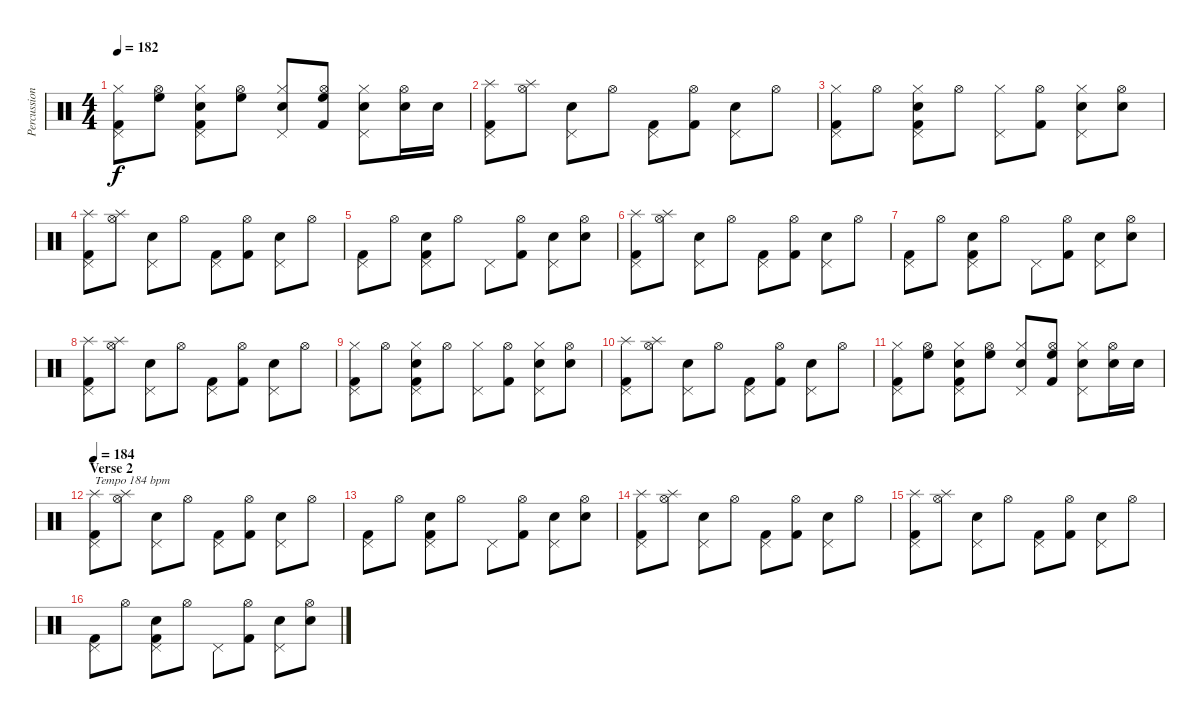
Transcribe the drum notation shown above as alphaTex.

\track ("Percussion" "Percussion") {instrument percussion}
\staff {score}
\articulation defaults
\ts (4 4)
\tempo 182
\clef neutral
\ks c
("Pedal Hi-Hat (hit)" "Hi-Hat (closed)" "Kick (hit) 2").8{dy f} ("Hi-Hat (open)" "High Floor Tom (hit)").8 ("Pedal Hi-Hat (hit)" "Hi-Hat (closed)" "Snare (hit) 2" "Kick (hit) 2").8 ("Hi-Hat (open)" "High Floor Tom (hit)").8 ("Pedal Hi-Hat (hit)" "Hi-Hat (closed)" "Snare (hit) 2").8 ("Hi-Hat (open)" "High Floor Tom (hit)" "Kick (hit) 2").8 ("Pedal Hi-Hat (hit)" "Hi-Hat (closed)" "Snare (hit) 2").8 ("Hi-Hat (open)" "Snare (hit) 2").16 "Snare (hit) 2".16 |
("Pedal Hi-Hat (hit)" "Splash (hit)" "Kick (hit) 2").8 ("Hi-Hat (open)" "Splash (hit)").8 ("Pedal Hi-Hat (hit)" "Snare (hit) 2").8 "Hi-Hat (open)".8 ("Pedal Hi-Hat (hit)" "Kick (hit) 2").8 ("Hi-Hat (open)" "Kick (hit) 2").8 ("Pedal Hi-Hat (hit)" "Snare (hit) 2").8 "Hi-Hat (open)".8 |
("Pedal Hi-Hat (hit)" "Hi-Hat (closed)" "Kick (hit) 2").8 "Hi-Hat (open)".8 ("Pedal Hi-Hat (hit)" "Hi-Hat (closed)" "Snare (hit) 2" "Kick (hit) 2").8 "Hi-Hat (open)".8 ("Pedal Hi-Hat (hit)" "Hi-Hat (closed)").8 ("Hi-Hat (open)" "Kick (hit) 2").8 ("Pedal Hi-Hat (hit)" "Hi-Hat (closed)" "Snare (hit) 2").8 ("Hi-Hat (open)" "Snare (hit) 2").8 |
("Pedal Hi-Hat (hit)" "Splash (hit)" "Kick (hit) 2").8 ("Hi-Hat (open)" "Splash (hit)").8 ("Pedal Hi-Hat (hit)" "Snare (hit) 2").8 "Hi-Hat (open)".8 ("Pedal Hi-Hat (hit)" "Kick (hit) 2").8 ("Hi-Hat (open)" "Kick (hit) 2").8 ("Pedal Hi-Hat (hit)" "Snare (hit) 2").8 "Hi-Hat (open)".8 |
("Pedal Hi-Hat (hit)" "Kick (hit) 2").8 "Hi-Hat (open)".8 ("Pedal Hi-Hat (hit)" "Snare (hit) 2" "Kick (hit) 2").8 "Hi-Hat (open)".8 "Pedal Hi-Hat (hit)".8 ("Hi-Hat (open)" "Kick (hit) 2").8 ("Pedal Hi-Hat (hit)" "Snare (hit) 2").8 ("Hi-Hat (open)" "Snare (hit) 2").8 |
("Pedal Hi-Hat (hit)" "Splash (hit)" "Kick (hit) 2").8 ("Hi-Hat (open)" "Splash (hit)").8 ("Pedal Hi-Hat (hit)" "Snare (hit) 2").8 "Hi-Hat (open)".8 ("Pedal Hi-Hat (hit)" "Kick (hit) 2").8 ("Hi-Hat (open)" "Kick (hit) 2").8 ("Pedal Hi-Hat (hit)" "Snare (hit) 2").8 "Hi-Hat (open)".8 |
("Pedal Hi-Hat (hit)" "Kick (hit) 2").8 "Hi-Hat (open)".8 ("Pedal Hi-Hat (hit)" "Snare (hit) 2" "Kick (hit) 2").8 "Hi-Hat (open)".8 "Pedal Hi-Hat (hit)".8 ("Hi-Hat (open)" "Kick (hit) 2").8 ("Pedal Hi-Hat (hit)" "Snare (hit) 2").8 ("Hi-Hat (open)" "Snare (hit) 2").8 |
("Pedal Hi-Hat (hit)" "Splash (hit)" "Kick (hit) 2").8 ("Hi-Hat (open)" "Splash (hit)").8 ("Pedal Hi-Hat (hit)" "Snare (hit) 2").8 "Hi-Hat (open)".8 ("Pedal Hi-Hat (hit)" "Kick (hit) 2").8 ("Hi-Hat (open)" "Kick (hit) 2").8 ("Pedal Hi-Hat (hit)" "Snare (hit) 2").8 "Hi-Hat (open)".8 |
("Pedal Hi-Hat (hit)" "Hi-Hat (closed)" "Kick (hit) 2").8 "Hi-Hat (open)".8 ("Pedal Hi-Hat (hit)" "Hi-Hat (closed)" "Snare (hit) 2" "Kick (hit) 2").8 "Hi-Hat (open)".8 ("Pedal Hi-Hat (hit)" "Hi-Hat (closed)").8 ("Hi-Hat (open)" "Kick (hit) 2").8 ("Pedal Hi-Hat (hit)" "Hi-Hat (closed)" "Snare (hit) 2").8 ("Hi-Hat (open)" "Snare (hit) 2").8 |
("Pedal Hi-Hat (hit)" "Splash (hit)" "Kick (hit) 2").8 ("Hi-Hat (open)" "Splash (hit)").8 ("Pedal Hi-Hat (hit)" "Snare (hit) 2").8 "Hi-Hat (open)".8 ("Pedal Hi-Hat (hit)" "Kick (hit) 2").8 ("Hi-Hat (open)" "Kick (hit) 2").8 ("Pedal Hi-Hat (hit)" "Snare (hit) 2").8 "Hi-Hat (open)".8 |
("Pedal Hi-Hat (hit)" "Hi-Hat (closed)" "Kick (hit) 2").8 ("Hi-Hat (open)" "High Floor Tom (hit)").8 ("Pedal Hi-Hat (hit)" "Hi-Hat (closed)" "Snare (hit) 2" "Kick (hit) 2").8 ("Hi-Hat (open)" "High Floor Tom (hit)").8 ("Pedal Hi-Hat (hit)" "Hi-Hat (closed)" "Snare (hit) 2").8 ("Hi-Hat (open)" "High Floor Tom (hit)" "Kick (hit) 2").8 ("Pedal Hi-Hat (hit)" "Hi-Hat (closed)" "Snare (hit) 2").8 ("Hi-Hat (open)" "Snare (hit) 2").16 "Snare (hit) 2".16 |
\section ("" "Verse 2")
\tempo 184
("Pedal Hi-Hat (hit)" "Splash (hit)" "Kick (hit) 2").8{txt "Tempo 184 bpm"} ("Hi-Hat (open)" "Splash (hit)").8 ("Pedal Hi-Hat (hit)" "Snare (hit) 2").8 "Hi-Hat (open)".8 ("Pedal Hi-Hat (hit)" "Kick (hit) 2").8 ("Hi-Hat (open)" "Kick (hit) 2").8 ("Pedal Hi-Hat (hit)" "Snare (hit) 2").8 "Hi-Hat (open)".8 |
("Pedal Hi-Hat (hit)" "Kick (hit) 2").8 "Hi-Hat (open)".8 ("Pedal Hi-Hat (hit)" "Snare (hit) 2" "Kick (hit) 2").8 "Hi-Hat (open)".8 "Pedal Hi-Hat (hit)".8 ("Hi-Hat (open)" "Kick (hit) 2").8 ("Pedal Hi-Hat (hit)" "Snare (hit) 2").8 ("Hi-Hat (open)" "Snare (hit) 2").8 |
("Pedal Hi-Hat (hit)" "Splash (hit)" "Kick (hit) 2").8 ("Hi-Hat (open)" "Splash (hit)").8 ("Pedal Hi-Hat (hit)" "Snare (hit) 2").8 "Hi-Hat (open)".8 ("Pedal Hi-Hat (hit)" "Kick (hit) 2").8 ("Hi-Hat (open)" "Kick (hit) 2").8 ("Pedal Hi-Hat (hit)" "Snare (hit) 2").8 "Hi-Hat (open)".8 |
("Pedal Hi-Hat (hit)" "Splash (hit)" "Kick (hit) 2").8 ("Hi-Hat (open)" "Splash (hit)").8 ("Pedal Hi-Hat (hit)" "Snare (hit) 2").8 "Hi-Hat (open)".8 ("Pedal Hi-Hat (hit)" "Kick (hit) 2").8 ("Hi-Hat (open)" "Kick (hit) 2").8 ("Pedal Hi-Hat (hit)" "Snare (hit) 2").8 "Hi-Hat (open)".8 |
("Pedal Hi-Hat (hit)" "Kick (hit) 2").8 "Hi-Hat (open)".8 ("Pedal Hi-Hat (hit)" "Snare (hit) 2" "Kick (hit) 2").8 "Hi-Hat (open)".8 "Pedal Hi-Hat (hit)".8 ("Hi-Hat (open)" "Kick (hit) 2").8 ("Pedal Hi-Hat (hit)" "Snare (hit) 2").8 ("Hi-Hat (open)" "Snare (hit) 2").8
